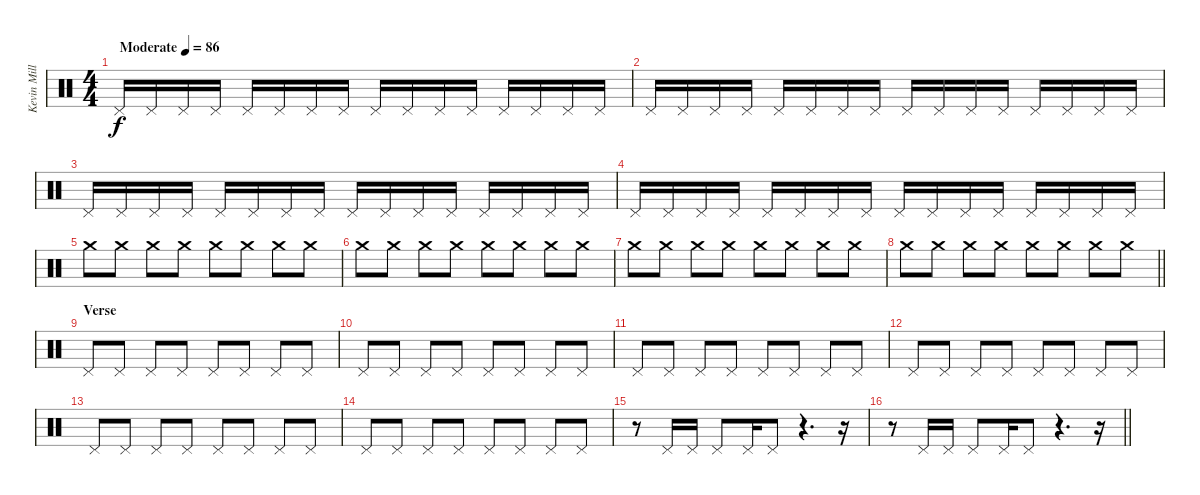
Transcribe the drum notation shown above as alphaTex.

\track ("Kevin Miller (Drums)" "Kevin Mill") {instrument percussion}
\staff {score}
\articulation defaults
\ts (4 4)
\tempo (86 "Moderate")
\clef neutral
\ks c "Pedal Hi-Hat (hit)".16{dy f} "Pedal Hi-Hat (hit)".16 "Pedal Hi-Hat (hit)".16 "Pedal Hi-Hat (hit)".16 "Pedal Hi-Hat (hit)".16 "Pedal Hi-Hat (hit)".16 "Pedal Hi-Hat (hit)".16 "Pedal Hi-Hat (hit)".16 "Pedal Hi-Hat (hit)".16 "Pedal Hi-Hat (hit)".16 "Pedal Hi-Hat (hit)".16 "Pedal Hi-Hat (hit)".16 "Pedal Hi-Hat (hit)".16 "Pedal Hi-Hat (hit)".16 "Pedal Hi-Hat (hit)".16 "Pedal Hi-Hat (hit)".16
|
"Pedal Hi-Hat (hit)".16 "Pedal Hi-Hat (hit)".16 "Pedal Hi-Hat (hit)".16 "Pedal Hi-Hat (hit)".16 "Pedal Hi-Hat (hit)".16 "Pedal Hi-Hat (hit)".16 "Pedal Hi-Hat (hit)".16 "Pedal Hi-Hat (hit)".16 "Pedal Hi-Hat (hit)".16 "Pedal Hi-Hat (hit)".16 "Pedal Hi-Hat (hit)".16 "Pedal Hi-Hat (hit)".16 "Pedal Hi-Hat (hit)".16 "Pedal Hi-Hat (hit)".16 "Pedal Hi-Hat (hit)".16 "Pedal Hi-Hat (hit)".16 |
"Pedal Hi-Hat (hit)".16 "Pedal Hi-Hat (hit)".16 "Pedal Hi-Hat (hit)".16 "Pedal Hi-Hat (hit)".16 "Pedal Hi-Hat (hit)".16 "Pedal Hi-Hat (hit)".16 "Pedal Hi-Hat (hit)".16 "Pedal Hi-Hat (hit)".16 "Pedal Hi-Hat (hit)".16 "Pedal Hi-Hat (hit)".16 "Pedal Hi-Hat (hit)".16 "Pedal Hi-Hat (hit)".16 "Pedal Hi-Hat (hit)".16 "Pedal Hi-Hat (hit)".16 "Pedal Hi-Hat (hit)".16 "Pedal Hi-Hat (hit)".16 |
"Pedal Hi-Hat (hit)".16 "Pedal Hi-Hat (hit)".16 "Pedal Hi-Hat (hit)".16 "Pedal Hi-Hat (hit)".16 "Pedal Hi-Hat (hit)".16 "Pedal Hi-Hat (hit)".16 "Pedal Hi-Hat (hit)".16 "Pedal Hi-Hat (hit)".16 "Pedal Hi-Hat (hit)".16 "Pedal Hi-Hat (hit)".16 "Pedal Hi-Hat (hit)".16 "Pedal Hi-Hat (hit)".16 "Pedal Hi-Hat (hit)".16 "Pedal Hi-Hat (hit)".16 "Pedal Hi-Hat (hit)".16 "Pedal Hi-Hat (hit)".16 |
"Crash medium (hit)".8 "Crash medium (hit)".8 "Crash medium (hit)".8 "Crash medium (hit)".8 "Crash medium (hit)".8 "Crash medium (hit)".8 "Crash medium (hit)".8 "Crash medium (hit)".8 |
"Crash medium (hit)".8 "Crash medium (hit)".8 "Crash medium (hit)".8 "Crash medium (hit)".8 "Crash medium (hit)".8 "Crash medium (hit)".8 "Crash medium (hit)".8 "Crash medium (hit)".8 |
"Crash medium (hit)".8 "Crash medium (hit)".8 "Crash medium (hit)".8 "Crash medium (hit)".8 "Crash medium (hit)".8 "Crash medium (hit)".8 "Crash medium (hit)".8 "Crash medium (hit)".8 |
\barLineRight lightlight "Crash medium (hit)".8 "Crash medium (hit)".8 "Crash medium (hit)".8 "Crash medium (hit)".8 "Crash medium (hit)".8 "Crash medium (hit)".8 "Crash medium (hit)".8 "Crash medium (hit)".8
|
\section ("" "Verse")
"Pedal Hi-Hat (hit)".8 "Pedal Hi-Hat (hit)".8 "Pedal Hi-Hat (hit)".8 "Pedal Hi-Hat (hit)".8 "Pedal Hi-Hat (hit)".8 "Pedal Hi-Hat (hit)".8 "Pedal Hi-Hat (hit)".8 "Pedal Hi-Hat (hit)".8 |
"Pedal Hi-Hat (hit)".8 "Pedal Hi-Hat (hit)".8 "Pedal Hi-Hat (hit)".8 "Pedal Hi-Hat (hit)".8 "Pedal Hi-Hat (hit)".8 "Pedal Hi-Hat (hit)".8 "Pedal Hi-Hat (hit)".8 "Pedal Hi-Hat (hit)".8 |
"Pedal Hi-Hat (hit)".8 "Pedal Hi-Hat (hit)".8 "Pedal Hi-Hat (hit)".8 "Pedal Hi-Hat (hit)".8 "Pedal Hi-Hat (hit)".8 "Pedal Hi-Hat (hit)".8 "Pedal Hi-Hat (hit)".8 "Pedal Hi-Hat (hit)".8 |
"Pedal Hi-Hat (hit)".8 "Pedal Hi-Hat (hit)".8 "Pedal Hi-Hat (hit)".8 "Pedal Hi-Hat (hit)".8 "Pedal Hi-Hat (hit)".8 "Pedal Hi-Hat (hit)".8 "Pedal Hi-Hat (hit)".8 "Pedal Hi-Hat (hit)".8 |
"Pedal Hi-Hat (hit)".8 "Pedal Hi-Hat (hit)".8 "Pedal Hi-Hat (hit)".8 "Pedal Hi-Hat (hit)".8 "Pedal Hi-Hat (hit)".8 "Pedal Hi-Hat (hit)".8 "Pedal Hi-Hat (hit)".8 "Pedal Hi-Hat (hit)".8 |
"Pedal Hi-Hat (hit)".8 "Pedal Hi-Hat (hit)".8 "Pedal Hi-Hat (hit)".8 "Pedal Hi-Hat (hit)".8 "Pedal Hi-Hat (hit)".8 "Pedal Hi-Hat (hit)".8 "Pedal Hi-Hat (hit)".8 "Pedal Hi-Hat (hit)".8 |
r.8 "Pedal Hi-Hat (hit)".16 "Pedal Hi-Hat (hit)".16 "Pedal Hi-Hat (hit)".8 "Pedal Hi-Hat (hit)".16 "Pedal Hi-Hat (hit)".8 r.4{d} r.16 |
\barLineRight lightlight
r.8 "Pedal Hi-Hat (hit)".16 "Pedal Hi-Hat (hit)".16 "Pedal Hi-Hat (hit)".8 "Pedal Hi-Hat (hit)".16 "Pedal Hi-Hat (hit)".8 r.4{d} r.16
